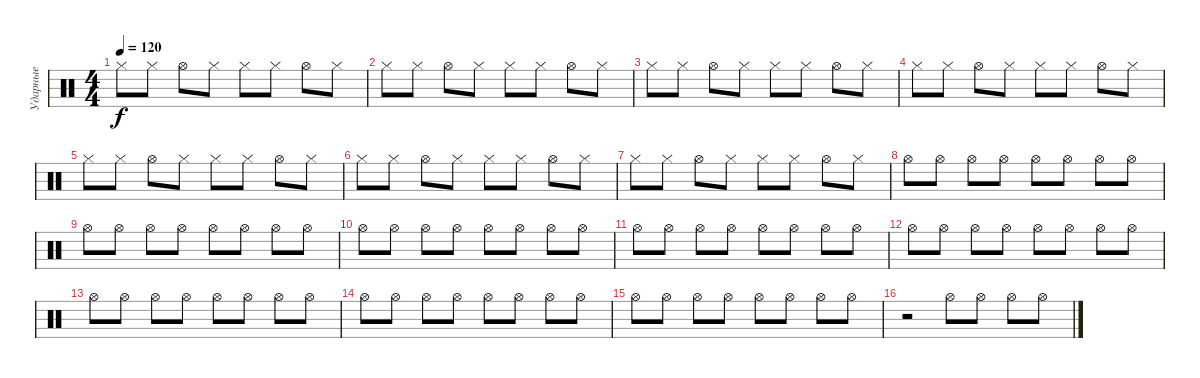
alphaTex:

\track ("Ударные" "Ударные") {instrument percussion}
\staff {score}
\articulation defaults
\ts (4 4)
\tempo 120
\clef neutral
\ks c "Hi-Hat (closed)".8{dy f} "Hi-Hat (closed)".8 "Hi-Hat (open)".8 "Hi-Hat (closed)".8 "Hi-Hat (closed)".8 "Hi-Hat (closed)".8 "Hi-Hat (open)".8 "Hi-Hat (closed)".8
|
"Hi-Hat (closed)".8 "Hi-Hat (closed)".8 "Hi-Hat (open)".8 "Hi-Hat (closed)".8 "Hi-Hat (closed)".8 "Hi-Hat (closed)".8 "Hi-Hat (open)".8 "Hi-Hat (closed)".8 |
"Hi-Hat (closed)".8 "Hi-Hat (closed)".8 "Hi-Hat (open)".8 "Hi-Hat (closed)".8 "Hi-Hat (closed)".8 "Hi-Hat (closed)".8 "Hi-Hat (open)".8 "Hi-Hat (closed)".8 |
"Hi-Hat (closed)".8 "Hi-Hat (closed)".8 "Hi-Hat (open)".8 "Hi-Hat (closed)".8 "Hi-Hat (closed)".8 "Hi-Hat (closed)".8 "Hi-Hat (open)".8 "Hi-Hat (closed)".8 |
"Hi-Hat (closed)".8 "Hi-Hat (closed)".8 "Hi-Hat (open)".8 "Hi-Hat (closed)".8 "Hi-Hat (closed)".8 "Hi-Hat (closed)".8 "Hi-Hat (open)".8 "Hi-Hat (closed)".8 |
"Hi-Hat (closed)".8 "Hi-Hat (closed)".8 "Hi-Hat (open)".8 "Hi-Hat (closed)".8 "Hi-Hat (closed)".8 "Hi-Hat (closed)".8 "Hi-Hat (open)".8 "Hi-Hat (closed)".8 |
"Hi-Hat (closed)".8 "Hi-Hat (closed)".8 "Hi-Hat (open)".8 "Hi-Hat (closed)".8 "Hi-Hat (closed)".8 "Hi-Hat (closed)".8 "Hi-Hat (open)".8 "Hi-Hat (closed)".8 |
"Hi-Hat (open)".8 "Hi-Hat (open)".8 "Hi-Hat (open)".8 "Hi-Hat (open)".8 "Hi-Hat (open)".8 "Hi-Hat (open)".8 "Hi-Hat (open)".8 "Hi-Hat (open)".8 |
"Hi-Hat (open)".8 "Hi-Hat (open)".8 "Hi-Hat (open)".8 "Hi-Hat (open)".8 "Hi-Hat (open)".8 "Hi-Hat (open)".8 "Hi-Hat (open)".8 "Hi-Hat (open)".8 |
"Hi-Hat (open)".8 "Hi-Hat (open)".8 "Hi-Hat (open)".8 "Hi-Hat (open)".8 "Hi-Hat (open)".8 "Hi-Hat (open)".8 "Hi-Hat (open)".8 "Hi-Hat (open)".8 |
"Hi-Hat (open)".8 "Hi-Hat (open)".8 "Hi-Hat (open)".8 "Hi-Hat (open)".8 "Hi-Hat (open)".8 "Hi-Hat (open)".8 "Hi-Hat (open)".8 "Hi-Hat (open)".8 |
"Hi-Hat (open)".8 "Hi-Hat (open)".8 "Hi-Hat (open)".8 "Hi-Hat (open)".8 "Hi-Hat (open)".8 "Hi-Hat (open)".8 "Hi-Hat (open)".8 "Hi-Hat (open)".8 |
"Hi-Hat (open)".8 "Hi-Hat (open)".8 "Hi-Hat (open)".8 "Hi-Hat (open)".8 "Hi-Hat (open)".8 "Hi-Hat (open)".8 "Hi-Hat (open)".8 "Hi-Hat (open)".8 |
"Hi-Hat (open)".8 "Hi-Hat (open)".8 "Hi-Hat (open)".8 "Hi-Hat (open)".8 "Hi-Hat (open)".8 "Hi-Hat (open)".8 "Hi-Hat (open)".8 "Hi-Hat (open)".8 |
"Hi-Hat (open)".8 "Hi-Hat (open)".8 "Hi-Hat (open)".8 "Hi-Hat (open)".8 "Hi-Hat (open)".8 "Hi-Hat (open)".8 "Hi-Hat (open)".8 "Hi-Hat (open)".8 |
r.2 "Hi-Hat (open)".8 "Hi-Hat (open)".8 "Hi-Hat (open)".8 "Hi-Hat (open)".8
